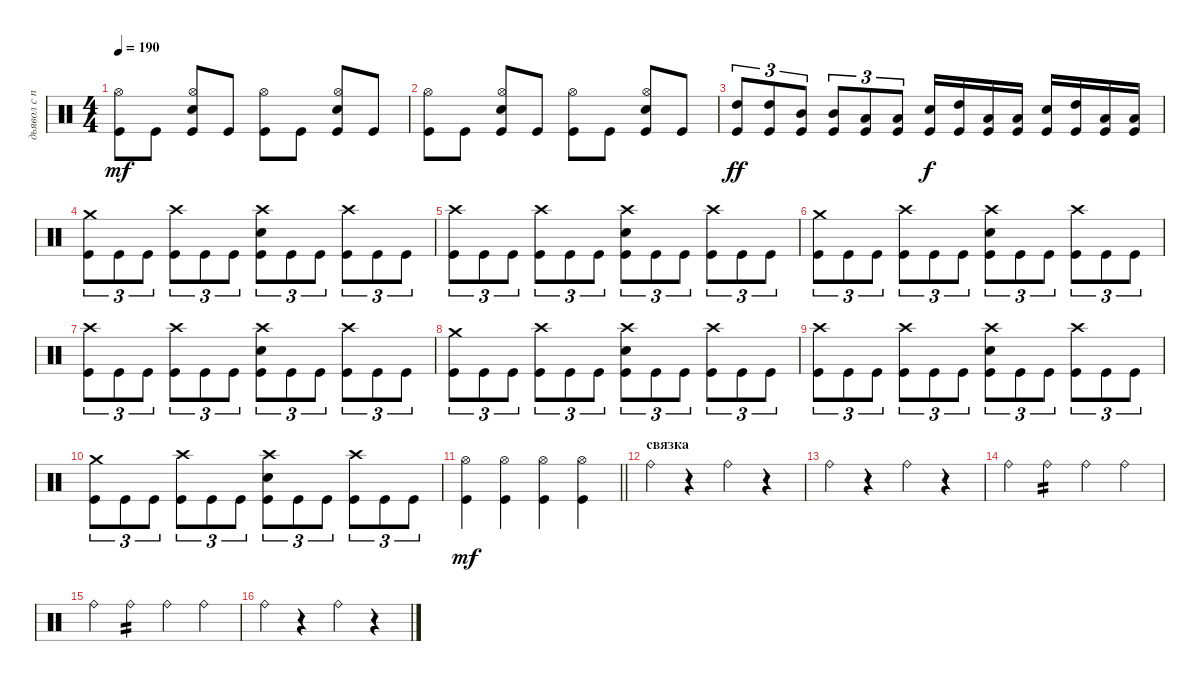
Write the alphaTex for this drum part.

\track ("дьявол с палками" "дьявол с п") {instrument percussion}
\staff {score}
\articulation defaults
\ts (4 4)
\tempo 190
\clef neutral
\ks c
("Kick (hit)" "Hi-Hat (open)").8{dy mf} "Kick (hit)".8 ("Kick (hit)" "Snare (hit) 2" "Hi-Hat (open)").8 "Kick (hit)".8 ("Kick (hit)" "Hi-Hat (open)").8 "Kick (hit)".8 ("Kick (hit)" "Snare (hit) 2" "Hi-Hat (open)").8 "Kick (hit)".8 |
("Kick (hit)" "Hi-Hat (open)").8 "Kick (hit)".8 ("Kick (hit)" "Snare (hit) 2" "Hi-Hat (open)").8 "Kick (hit)".8 ("Kick (hit)" "Hi-Hat (open)").8 "Kick (hit)".8 ("Kick (hit)" "Snare (hit) 2" "Hi-Hat (open)").8 "Kick (hit)".8 |
("Kick (hit)" "High Tom (hit)").8{tu (3 2) dy ff} ("Kick (hit)" "High Tom (hit)").8{tu (3 2)} ("Kick (hit)" "Mid Tom (hit)").8{tu (3 2)} ("Kick (hit)" "Mid Tom (hit)").8{tu (3 2)} ("Kick (hit)" "Low Tom (hit)").8{tu (3 2)} ("Kick (hit)" "Low Tom (hit)").8{tu (3 2)} ("Kick (hit)" "Snare (hit) 2").16{dy f} ("Kick (hit)" "High Tom (hit)").16 ("Kick (hit)" "Low Tom (hit)").16 ("Kick (hit)" "Low Tom (hit)").16 ("Kick (hit)" "Snare (hit) 2").16 ("Kick (hit)" "High Tom (hit)").16 ("Kick (hit)" "Low Tom (hit)").16 ("Kick (hit)" "Low Tom (hit)").16 |
("Kick (hit)" "Crash medium (hit)").8{tu (3 2)} "Kick (hit)".8{tu (3 2)} "Kick (hit)".8{tu (3 2)} ("Kick (hit)" "Crash high (hit)").8{tu (3 2)} "Kick (hit)".8{tu (3 2)} "Kick (hit)".8{tu (3 2)} ("Kick (hit)" "Snare (hit) 2" "Crash high (hit)").8{tu (3 2)} "Kick (hit)".8{tu (3 2)} "Kick (hit)".8{tu (3 2)} ("Kick (hit)" "Crash high (hit)").8{tu (3 2)} "Kick (hit)".8{tu (3 2)} "Kick (hit)".8{tu (3 2)} |
("Kick (hit)" "Crash high (hit)").8{tu (3 2)} "Kick (hit)".8{tu (3 2)} "Kick (hit)".8{tu (3 2)} ("Kick (hit)" "Crash high (hit)").8{tu (3 2)} "Kick (hit)".8{tu (3 2)} "Kick (hit)".8{tu (3 2)} ("Kick (hit)" "Snare (hit) 2" "Crash high (hit)").8{tu (3 2)} "Kick (hit)".8{tu (3 2)} "Kick (hit)".8{tu (3 2)} ("Kick (hit)" "Crash high (hit)").8{tu (3 2)} "Kick (hit)".8{tu (3 2)} "Kick (hit)".8{tu (3 2)} |
("Kick (hit)" "Crash medium (hit)").8{tu (3 2)} "Kick (hit)".8{tu (3 2)} "Kick (hit)".8{tu (3 2)} ("Kick (hit)" "Crash high (hit)").8{tu (3 2)} "Kick (hit)".8{tu (3 2)} "Kick (hit)".8{tu (3 2)} ("Kick (hit)" "Snare (hit) 2" "Crash high (hit)").8{tu (3 2)} "Kick (hit)".8{tu (3 2)} "Kick (hit)".8{tu (3 2)} ("Kick (hit)" "Crash high (hit)").8{tu (3 2)} "Kick (hit)".8{tu (3 2)} "Kick (hit)".8{tu (3 2)} |
("Kick (hit)" "Crash high (hit)").8{tu (3 2)} "Kick (hit)".8{tu (3 2)} "Kick (hit)".8{tu (3 2)} ("Kick (hit)" "Crash high (hit)").8{tu (3 2)} "Kick (hit)".8{tu (3 2)} "Kick (hit)".8{tu (3 2)} ("Kick (hit)" "Snare (hit) 2" "Crash high (hit)").8{tu (3 2)} "Kick (hit)".8{tu (3 2)} "Kick (hit)".8{tu (3 2)} ("Kick (hit)" "Crash high (hit)").8{tu (3 2)} "Kick (hit)".8{tu (3 2)} "Kick (hit)".8{tu (3 2)} |
("Kick (hit)" "Crash medium (hit)").8{tu (3 2)} "Kick (hit)".8{tu (3 2)} "Kick (hit)".8{tu (3 2)} ("Kick (hit)" "Crash high (hit)").8{tu (3 2)} "Kick (hit)".8{tu (3 2)} "Kick (hit)".8{tu (3 2)} ("Kick (hit)" "Snare (hit) 2" "Crash high (hit)").8{tu (3 2)} "Kick (hit)".8{tu (3 2)} "Kick (hit)".8{tu (3 2)} ("Kick (hit)" "Crash high (hit)").8{tu (3 2)} "Kick (hit)".8{tu (3 2)} "Kick (hit)".8{tu (3 2)} |
("Kick (hit)" "Crash high (hit)").8{tu (3 2)} "Kick (hit)".8{tu (3 2)} "Kick (hit)".8{tu (3 2)} ("Kick (hit)" "Crash high (hit)").8{tu (3 2)} "Kick (hit)".8{tu (3 2)} "Kick (hit)".8{tu (3 2)} ("Kick (hit)" "Snare (hit) 2" "Crash high (hit)").8{tu (3 2)} "Kick (hit)".8{tu (3 2)} "Kick (hit)".8{tu (3 2)} ("Kick (hit)" "Crash high (hit)").8{tu (3 2)} "Kick (hit)".8{tu (3 2)} "Kick (hit)".8{tu (3 2)} |
("Kick (hit)" "Crash medium (hit)").8{tu (3 2)} "Kick (hit)".8{tu (3 2)} "Kick (hit)".8{tu (3 2)} ("Kick (hit)" "Crash high (hit)").8{tu (3 2)} "Kick (hit)".8{tu (3 2)} "Kick (hit)".8{tu (3 2)} ("Kick (hit)" "Snare (hit) 2" "Crash high (hit)").8{tu (3 2)} "Kick (hit)".8{tu (3 2)} "Kick (hit)".8{tu (3 2)} ("Kick (hit)" "Crash high (hit)").8{tu (3 2)} "Kick (hit)".8{tu (3 2)} "Kick (hit)".8{tu (3 2)} |
\barLineRight lightlight
("Kick (hit)" "Hi-Hat (open)").4{dy mf} ("Kick (hit)" "Hi-Hat (open)").4 ("Kick (hit)" "Hi-Hat (open)").4 ("Kick (hit)" "Hi-Hat (open)").4 |
\section ("" "связка")
"Ride (bell)".4 r.4 "Ride (bell)".4 r.4 |
"Ride (bell)".4 r.4 "Ride (bell)".4 r.4 |
"Ride (bell)".4 "Ride (bell)".4{tp 2} "Ride (bell)".4 "Ride (bell)".4 |
"Ride (bell)".4 "Ride (bell)".4{tp 2} "Ride (bell)".4 "Ride (bell)".4 |
"Ride (bell)".4 r.4 "Ride (bell)".4 r.4
